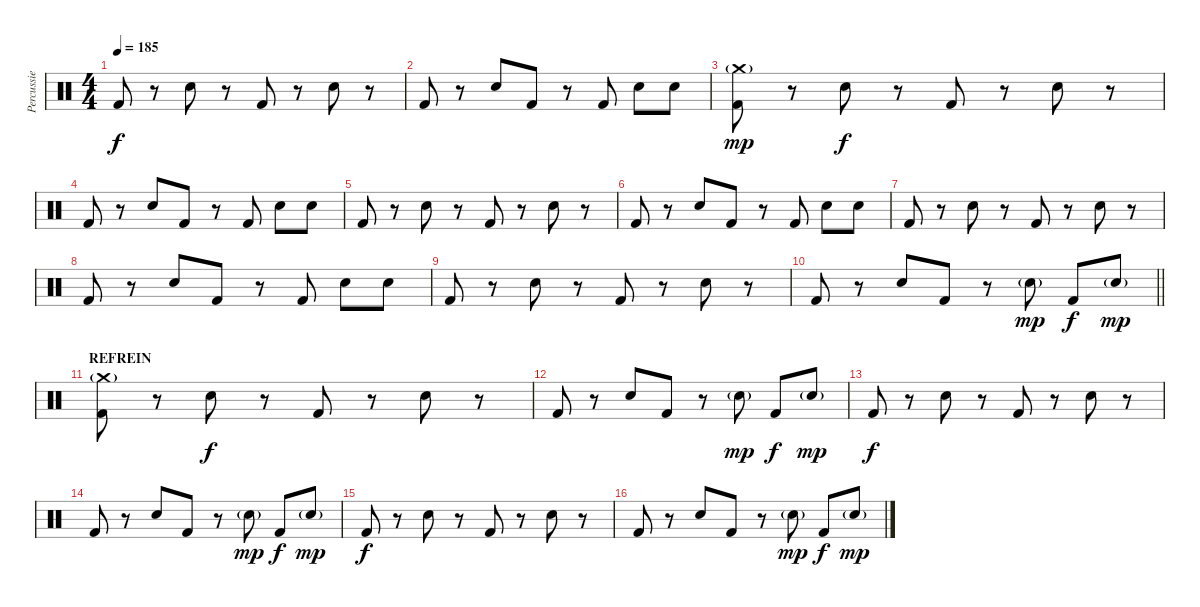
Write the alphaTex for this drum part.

\track ("Percussie" "Percussie") {instrument percussion}
\staff {score}
\articulation defaults
\ts (4 4)
\tempo 185
\clef neutral
\ks c "Kick (hit) 2".8{dy f}
r.8 "Snare (hit) 2".8 r.8 "Kick (hit) 2".8 r.8 "Snare (hit) 2".8 r.8 |
"Kick (hit) 2".8 r.8 "Snare (hit) 2".8 "Kick (hit) 2".8 r.8 "Kick (hit) 2".8 "Snare (hit) 2".8 "Snare (hit) 2".8 |
("Crash medium (hit)"{g} "Kick (hit) 2").8{dy mp} r.8 "Snare (hit) 2".8{dy f} r.8 "Kick (hit) 2".8 r.8 "Snare (hit) 2".8 r.8 |
"Kick (hit) 2".8 r.8 "Snare (hit) 2".8 "Kick (hit) 2".8 r.8 "Kick (hit) 2".8 "Snare (hit) 2".8 "Snare (hit) 2".8 |
"Kick (hit) 2".8 r.8 "Snare (hit) 2".8 r.8 "Kick (hit) 2".8 r.8 "Snare (hit) 2".8 r.8 |
"Kick (hit) 2".8 r.8 "Snare (hit) 2".8 "Kick (hit) 2".8 r.8 "Kick (hit) 2".8 "Snare (hit) 2".8 "Snare (hit) 2".8 |
"Kick (hit) 2".8 r.8 "Snare (hit) 2".8 r.8 "Kick (hit) 2".8 r.8 "Snare (hit) 2".8 r.8 |
"Kick (hit) 2".8 r.8 "Snare (hit) 2".8 "Kick (hit) 2".8 r.8 "Kick (hit) 2".8 "Snare (hit) 2".8 "Snare (hit) 2".8 |
"Kick (hit) 2".8 r.8 "Snare (hit) 2".8 r.8 "Kick (hit) 2".8 r.8 "Snare (hit) 2".8 r.8 |
\barLineRight lightlight "Kick (hit) 2".8
r.8 "Snare (hit) 2".8 "Kick (hit) 2".8 r.8 "Snare (hit) 2"{g}.8{dy mp} "Kick (hit) 2".8{dy f} "Snare (hit) 2"{g}.8{dy mp} |
\section ("" "REFREIN")
("Crash medium (hit)"{g} "Kick (hit) 2").8 r.8 "Snare (hit) 2".8{dy f} r.8 "Kick (hit) 2".8 r.8 "Snare (hit) 2".8 r.8 |
"Kick (hit) 2".8 r.8 "Snare (hit) 2".8 "Kick (hit) 2".8 r.8 "Snare (hit) 2"{g}.8{dy mp} "Kick (hit) 2".8{dy f} "Snare (hit) 2"{g}.8{dy mp} |
"Kick (hit) 2".8{dy f} r.8 "Snare (hit) 2".8 r.8 "Kick (hit) 2".8 r.8 "Snare (hit) 2".8 r.8 |
"Kick (hit) 2".8 r.8 "Snare (hit) 2".8 "Kick (hit) 2".8 r.8 "Snare (hit) 2"{g}.8{dy mp} "Kick (hit) 2".8{dy f} "Snare (hit) 2"{g}.8{dy mp} |
"Kick (hit) 2".8{dy f} r.8 "Snare (hit) 2".8 r.8 "Kick (hit) 2".8 r.8 "Snare (hit) 2".8 r.8 |
"Kick (hit) 2".8 r.8 "Snare (hit) 2".8 "Kick (hit) 2".8 r.8 "Snare (hit) 2"{g}.8{dy mp} "Kick (hit) 2".8{dy f} "Snare (hit) 2"{g}.8{dy mp}
